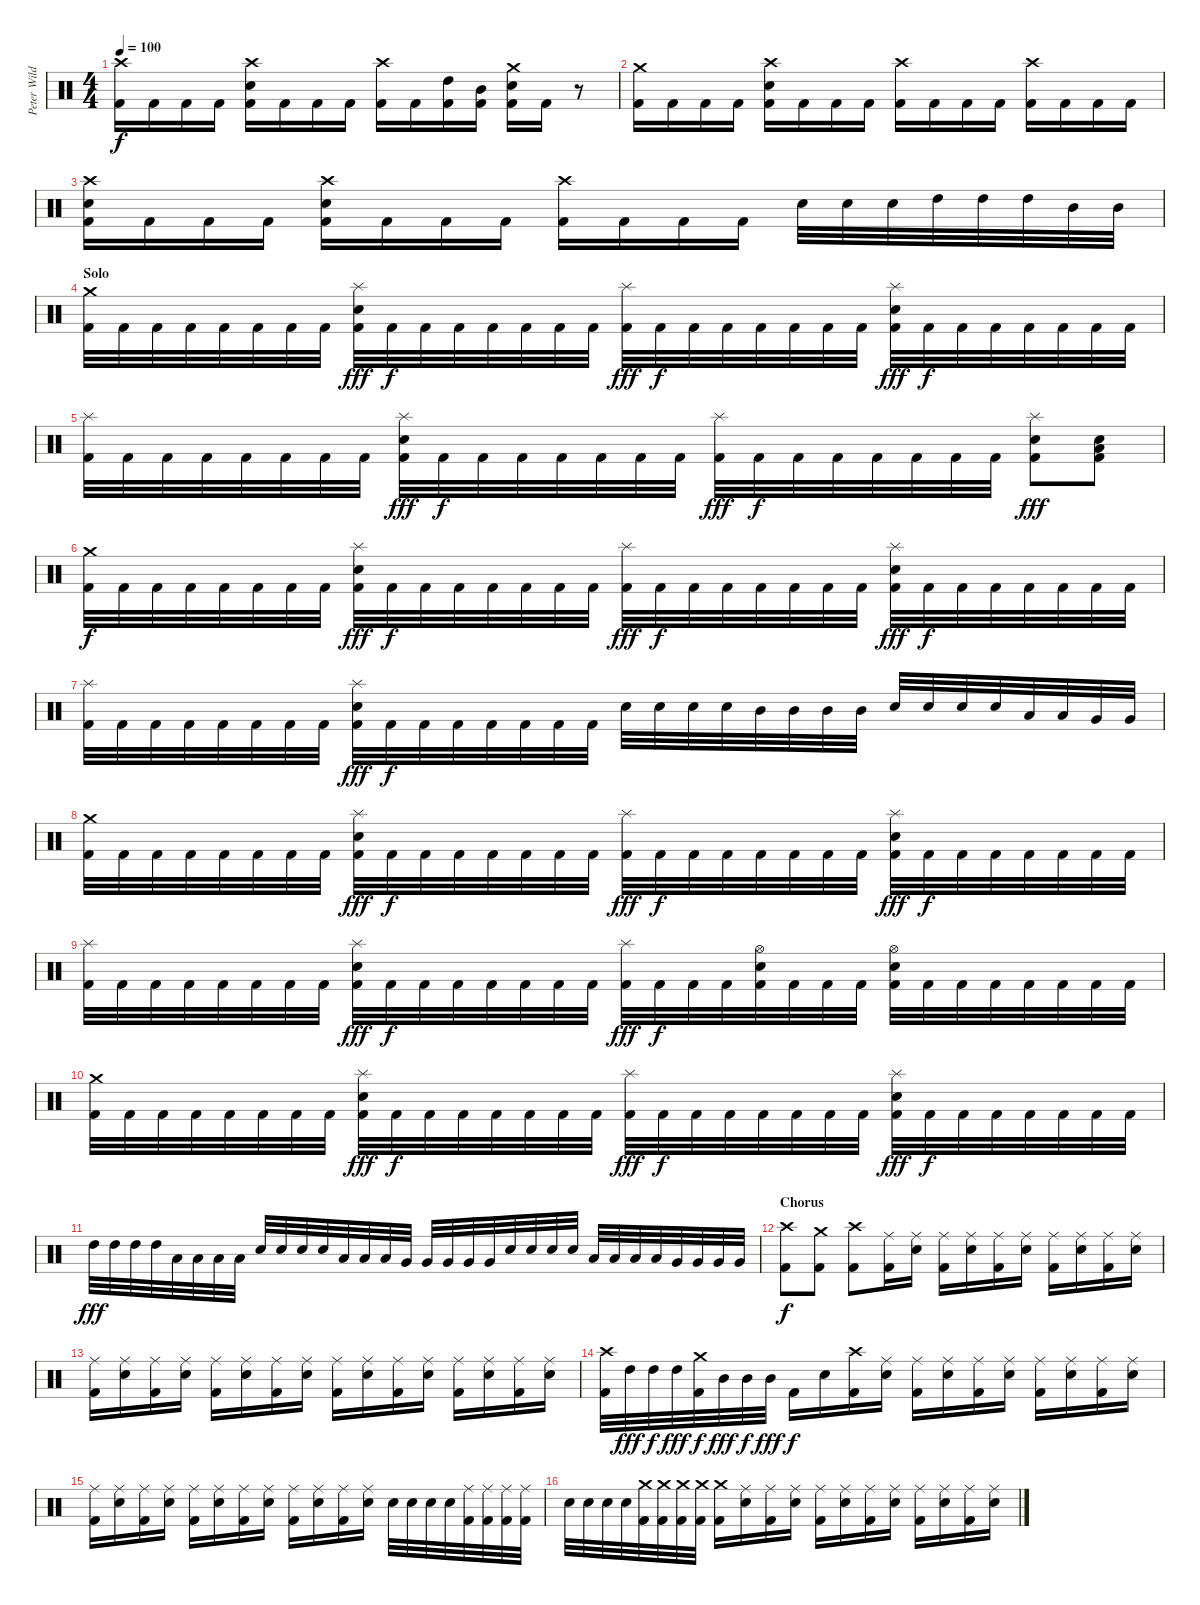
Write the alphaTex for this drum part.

\track ("Peter Wildoer" "Peter Wild") {instrument percussion}
\staff {score}
\articulation defaults
\ts (4 4)
\tempo 100
\clef neutral
\ks c
("Crash high (hit)" "Kick (hit) 2").16{dy f} "Kick (hit) 2".16 "Kick (hit) 2".16 "Kick (hit) 2".16 ("Crash high (hit)" "Electric Snare (hit)" "Kick (hit) 2").16 "Kick (hit) 2".16 "Kick (hit) 2".16 "Kick (hit) 2".16 ("Crash high (hit)" "Kick (hit) 2").16 "Kick (hit) 2".16 ("High Tom (hit)" "Kick (hit) 2").16 ("Mid Tom (hit)" "Kick (hit) 2").16 ("Crash medium (hit)" "Electric Snare (hit)" "Kick (hit) 2").16 "Kick (hit) 2".16 r.8 |
("Crash medium (hit)" "Kick (hit) 2").16 "Kick (hit) 2".16 "Kick (hit) 2".16 "Kick (hit) 2".16 ("Crash high (hit)" "Electric Snare (hit)" "Kick (hit) 2").16 "Kick (hit) 2".16 "Kick (hit) 2".16 "Kick (hit) 2".16 ("Crash high (hit)" "Kick (hit) 2").16 "Kick (hit) 2".16 "Kick (hit) 2".16 "Kick (hit) 2".16 ("Crash high (hit)" "Kick (hit) 2").16 "Kick (hit) 2".16 "Kick (hit) 2".16 "Kick (hit) 2".16 |
("Crash high (hit)" "Electric Snare (hit)" "Kick (hit) 2").16 "Kick (hit) 2".16 "Kick (hit) 2".16 "Kick (hit) 2".16 ("Crash high (hit)" "Electric Snare (hit)" "Kick (hit) 2").16 "Kick (hit) 2".16 "Kick (hit) 2".16 "Kick (hit) 2".16 ("Crash high (hit)" "Kick (hit) 2").16 "Kick (hit) 2".16 "Kick (hit) 2".16 "Kick (hit) 2".16 "Electric Snare (hit)".32 "Electric Snare (hit)".32 "Electric Snare (hit)".32 "High Tom (hit)".32 "High Tom (hit)".32 "High Tom (hit)".32 "Mid Tom (hit)".32 "Mid Tom (hit)".32 |
\section ("" "Solo")
("Crash medium (hit)" "Kick (hit) 2").32 "Kick (hit) 2".32 "Kick (hit) 2".32 "Kick (hit) 2".32 "Kick (hit) 2".32 "Kick (hit) 2".32 "Kick (hit) 2".32 "Kick (hit) 2".32 ("Splash (hit)" "Electric Snare (hit)" "Kick (hit) 2").32{dy fff} "Kick (hit) 2".32{dy f} "Kick (hit) 2".32 "Kick (hit) 2".32 "Kick (hit) 2".32 "Kick (hit) 2".32 "Kick (hit) 2".32 "Kick (hit) 2".32 ("Splash (hit)" "Kick (hit) 2").32{dy fff} "Kick (hit) 2".32{dy f} "Kick (hit) 2".32 "Kick (hit) 2".32 "Kick (hit) 2".32 "Kick (hit) 2".32 "Kick (hit) 2".32 "Kick (hit) 2".32 ("Splash (hit)" "Electric Snare (hit)" "Kick (hit) 2").32{dy fff} "Kick (hit) 2".32{dy f} "Kick (hit) 2".32 "Kick (hit) 2".32 "Kick (hit) 2".32 "Kick (hit) 2".32 "Kick (hit) 2".32 "Kick (hit) 2".32 |
("Splash (hit)" "Kick (hit) 2").32 "Kick (hit) 2".32 "Kick (hit) 2".32 "Kick (hit) 2".32 "Kick (hit) 2".32 "Kick (hit) 2".32 "Kick (hit) 2".32 "Kick (hit) 2".32 ("Splash (hit)" "Electric Snare (hit)" "Kick (hit) 2").32{dy fff} "Kick (hit) 2".32{dy f} "Kick (hit) 2".32 "Kick (hit) 2".32 "Kick (hit) 2".32 "Kick (hit) 2".32 "Kick (hit) 2".32 "Kick (hit) 2".32 ("Splash (hit)" "Kick (hit) 2").32{dy fff} "Kick (hit) 2".32{dy f} "Kick (hit) 2".32 "Kick (hit) 2".32 "Kick (hit) 2".32 "Kick (hit) 2".32 "Kick (hit) 2".32 "Kick (hit) 2".32 ("Splash (hit)" "Electric Snare (hit)" "Kick (hit) 2").8{dy fff} ("Electric Snare (hit)" "Low Floor Tom (hit)" "Kick (hit) 2").8 |
("Crash medium (hit)" "Kick (hit) 2").32{dy f} "Kick (hit) 2".32 "Kick (hit) 2".32 "Kick (hit) 2".32 "Kick (hit) 2".32 "Kick (hit) 2".32 "Kick (hit) 2".32 "Kick (hit) 2".32 ("Splash (hit)" "Electric Snare (hit)" "Kick (hit) 2").32{dy fff} "Kick (hit) 2".32{dy f} "Kick (hit) 2".32 "Kick (hit) 2".32 "Kick (hit) 2".32 "Kick (hit) 2".32 "Kick (hit) 2".32 "Kick (hit) 2".32 ("Splash (hit)" "Kick (hit) 2").32{dy fff} "Kick (hit) 2".32{dy f} "Kick (hit) 2".32 "Kick (hit) 2".32 "Kick (hit) 2".32 "Kick (hit) 2".32 "Kick (hit) 2".32 "Kick (hit) 2".32 ("Splash (hit)" "Electric Snare (hit)" "Kick (hit) 2").32{dy fff} "Kick (hit) 2".32{dy f} "Kick (hit) 2".32 "Kick (hit) 2".32 "Kick (hit) 2".32 "Kick (hit) 2".32 "Kick (hit) 2".32 "Kick (hit) 2".32 |
("Splash (hit)" "Kick (hit) 2").32 "Kick (hit) 2".32 "Kick (hit) 2".32 "Kick (hit) 2".32 "Kick (hit) 2".32 "Kick (hit) 2".32 "Kick (hit) 2".32 "Kick (hit) 2".32 ("Splash (hit)" "Electric Snare (hit)" "Kick (hit) 2").32{dy fff} "Kick (hit) 2".32{dy f} "Kick (hit) 2".32 "Kick (hit) 2".32 "Kick (hit) 2".32 "Kick (hit) 2".32 "Kick (hit) 2".32 "Kick (hit) 2".32 "Electric Snare (hit)".32 "Electric Snare (hit)".32 "Electric Snare (hit)".32 "Electric Snare (hit)".32 "Mid Tom (hit)".32 "Mid Tom (hit)".32 "Mid Tom (hit)".32 "Mid Tom (hit)".32 "Electric Snare (hit)".32 "Electric Snare (hit)".32 "Electric Snare (hit)".32 "Electric Snare (hit)".32 "Low Tom (hit)".32 "Low Tom (hit)".32 "Very Low Tom (hit)".32 "Very Low Tom (hit)".32 |
("Crash medium (hit)" "Kick (hit) 2").32 "Kick (hit) 2".32 "Kick (hit) 2".32 "Kick (hit) 2".32 "Kick (hit) 2".32 "Kick (hit) 2".32 "Kick (hit) 2".32 "Kick (hit) 2".32 ("Splash (hit)" "Electric Snare (hit)" "Kick (hit) 2").32{dy fff} "Kick (hit) 2".32{dy f} "Kick (hit) 2".32 "Kick (hit) 2".32 "Kick (hit) 2".32 "Kick (hit) 2".32 "Kick (hit) 2".32 "Kick (hit) 2".32 ("Splash (hit)" "Kick (hit) 2").32{dy fff} "Kick (hit) 2".32{dy f} "Kick (hit) 2".32 "Kick (hit) 2".32 "Kick (hit) 2".32 "Kick (hit) 2".32 "Kick (hit) 2".32 "Kick (hit) 2".32 ("Splash (hit)" "Electric Snare (hit)" "Kick (hit) 2").32{dy fff} "Kick (hit) 2".32{dy f} "Kick (hit) 2".32 "Kick (hit) 2".32 "Kick (hit) 2".32 "Kick (hit) 2".32 "Kick (hit) 2".32 "Kick (hit) 2".32 |
("Splash (hit)" "Kick (hit) 2").32 "Kick (hit) 2".32 "Kick (hit) 2".32 "Kick (hit) 2".32 "Kick (hit) 2".32 "Kick (hit) 2".32 "Kick (hit) 2".32 "Kick (hit) 2".32 ("Splash (hit)" "Electric Snare (hit)" "Kick (hit) 2").32{dy fff} "Kick (hit) 2".32{dy f} "Kick (hit) 2".32 "Kick (hit) 2".32 "Kick (hit) 2".32 "Kick (hit) 2".32 "Kick (hit) 2".32 "Kick (hit) 2".32 ("Splash (hit)" "Kick (hit) 2").32{dy fff} "Kick (hit) 2".32{dy f} "Kick (hit) 2".32 "Kick (hit) 2".32 ("Hi-Hat (open)" "Electric Snare (hit)" "Kick (hit) 2").32 "Kick (hit) 2".32 "Kick (hit) 2".32 "Kick (hit) 2".32 ("Hi-Hat (open)" "Electric Snare (hit)" "Kick (hit) 2").32 "Kick (hit) 2".32 "Kick (hit) 2".32 "Kick (hit) 2".32 "Kick (hit) 2".32 "Kick (hit) 2".32 "Kick (hit) 2".32 "Kick (hit) 2".32 |
("Crash medium (hit)" "Kick (hit) 2").32 "Kick (hit) 2".32 "Kick (hit) 2".32 "Kick (hit) 2".32 "Kick (hit) 2".32 "Kick (hit) 2".32 "Kick (hit) 2".32 "Kick (hit) 2".32 ("Splash (hit)" "Electric Snare (hit)" "Kick (hit) 2").32{dy fff} "Kick (hit) 2".32{dy f} "Kick (hit) 2".32 "Kick (hit) 2".32 "Kick (hit) 2".32 "Kick (hit) 2".32 "Kick (hit) 2".32 "Kick (hit) 2".32 ("Splash (hit)" "Kick (hit) 2").32{dy fff} "Kick (hit) 2".32{dy f} "Kick (hit) 2".32 "Kick (hit) 2".32 "Kick (hit) 2".32 "Kick (hit) 2".32 "Kick (hit) 2".32 "Kick (hit) 2".32 ("Splash (hit)" "Electric Snare (hit)" "Kick (hit) 2").32{dy fff} "Kick (hit) 2".32{dy f} "Kick (hit) 2".32 "Kick (hit) 2".32 "Kick (hit) 2".32 "Kick (hit) 2".32 "Kick (hit) 2".32 "Kick (hit) 2".32 |
"High Tom (hit)".32{dy fff} "High Tom (hit)".32 "High Tom (hit)".32 "High Tom (hit)".32 "Low Tom (hit)".32 "Low Tom (hit)".32 "Low Tom (hit)".32 "Low Tom (hit)".32 "Electric Snare (hit)".32 "Electric Snare (hit)".32 "Electric Snare (hit)".32 "Electric Snare (hit)".32 "Low Tom (hit)".32 "Low Tom (hit)".32 "Low Tom (hit)".32 "Very Low Tom (hit)".32 "Very Low Tom (hit)".32 "Very Low Tom (hit)".32 "Very Low Tom (hit)".32 "Very Low Tom (hit)".32 "Electric Snare (hit)".32 "Electric Snare (hit)".32 "Electric Snare (hit)".32 "Electric Snare (hit)".32 "Low Tom (hit)".32 "Low Tom (hit)".32 "Low Tom (hit)".32 "Low Tom (hit)".32 "Very Low Tom (hit)".32 "Very Low Tom (hit)".32 "Very Low Tom (hit)".32 "Very Low Tom (hit)".32 |
\section ("" "Chorus")
("Crash high (hit)" "Kick (hit) 2").8{dy f} ("Crash medium (hit)" "Kick (hit) 2").8 ("Crash high (hit)" "Kick (hit) 2").8 ("Ride (middle)" "Kick (hit) 2").16 ("Ride (middle)" "Electric Snare (hit)").16 ("Ride (middle)" "Kick (hit) 2").16 ("Ride (middle)" "Electric Snare (hit)").16 ("Ride (middle)" "Kick (hit) 2").16 ("Ride (middle)" "Electric Snare (hit)").16 ("Ride (middle)" "Kick (hit) 2").16 ("Ride (middle)" "Electric Snare (hit)").16 ("Ride (middle)" "Kick (hit) 2").16 ("Ride (middle)" "Electric Snare (hit)").16 |
("Ride (middle)" "Kick (hit) 2").16 ("Ride (middle)" "Electric Snare (hit)").16 ("Ride (middle)" "Kick (hit) 2").16 ("Ride (middle)" "Electric Snare (hit)").16 ("Ride (middle)" "Kick (hit) 2").16 ("Ride (middle)" "Electric Snare (hit)").16 ("Ride (middle)" "Kick (hit) 2").16 ("Ride (middle)" "Electric Snare (hit)").16 ("Ride (middle)" "Kick (hit) 2").16 ("Ride (middle)" "Electric Snare (hit)").16 ("Ride (middle)" "Kick (hit) 2").16 ("Ride (middle)" "Electric Snare (hit)").16 ("Ride (middle)" "Kick (hit) 2").16 ("Ride (middle)" "Electric Snare (hit)").16 ("Ride (middle)" "Kick (hit) 2").16 ("Ride (middle)" "Electric Snare (hit)").16 |
("Crash high (hit)" "Kick (hit) 2").32 "High Tom (hit)".32{dy fff} "High Tom (hit)".32{dy f} "High Tom (hit)".32{dy fff} ("Crash medium (hit)" "Kick (hit) 2").32{dy f} "Mid Tom (hit)".32{dy fff} "Mid Tom (hit)".32{dy f} "Mid Tom (hit)".32{dy fff} "Kick (hit) 2".16{dy f} "Electric Snare (hit)".16 ("Crash high (hit)" "Kick (hit) 2").16 ("Ride (middle)" "Electric Snare (hit)").16 ("Ride (middle)" "Kick (hit) 2").16 ("Ride (middle)" "Electric Snare (hit)").16 ("Ride (middle)" "Kick (hit) 2").16 ("Ride (middle)" "Electric Snare (hit)").16 ("Ride (middle)" "Kick (hit) 2").16 ("Ride (middle)" "Electric Snare (hit)").16 ("Ride (middle)" "Kick (hit) 2").16 ("Ride (middle)" "Electric Snare (hit)").16 |
("Ride (middle)" "Kick (hit) 2").16 ("Ride (middle)" "Electric Snare (hit)").16 ("Ride (middle)" "Kick (hit) 2").16 ("Ride (middle)" "Electric Snare (hit)").16 ("Ride (middle)" "Kick (hit) 2").16 ("Ride (middle)" "Electric Snare (hit)").16 ("Ride (middle)" "Kick (hit) 2").16 ("Ride (middle)" "Electric Snare (hit)").16 ("Ride (middle)" "Kick (hit) 2").16 ("Ride (middle)" "Electric Snare (hit)").16 ("Ride (middle)" "Kick (hit) 2").16 ("Ride (middle)" "Electric Snare (hit)").16 "Electric Snare (hit)".32 "Electric Snare (hit)".32 "Electric Snare (hit)".32 "Electric Snare (hit)".32 ("Ride (middle)" "Kick (hit) 2").32 ("Ride (middle)" "Kick (hit) 2").32 ("Ride (middle)" "Kick (hit) 2").32 ("Ride (middle)" "Kick (hit) 2").32 |
"Electric Snare (hit)".32 "Electric Snare (hit)".32 "Electric Snare (hit)".32 "Electric Snare (hit)".32 ("Crash medium (hit)" "Kick (hit) 2").32 ("Crash medium (hit)" "Kick (hit) 2").32 ("Crash medium (hit)" "Kick (hit) 2").32 ("Crash medium (hit)" "Kick (hit) 2").32 ("Crash medium (hit)" "Kick (hit) 2").16 ("Ride (middle)" "Electric Snare (hit)").16 ("Ride (middle)" "Kick (hit) 2").16 ("Ride (middle)" "Electric Snare (hit)").16 ("Ride (middle)" "Kick (hit) 2").16 ("Ride (middle)" "Electric Snare (hit)").16 ("Ride (middle)" "Kick (hit) 2").16 ("Ride (middle)" "Electric Snare (hit)").16 ("Ride (middle)" "Kick (hit) 2").16 ("Ride (middle)" "Electric Snare (hit)").16 ("Ride (middle)" "Kick (hit) 2").16 ("Ride (middle)" "Electric Snare (hit)").16
